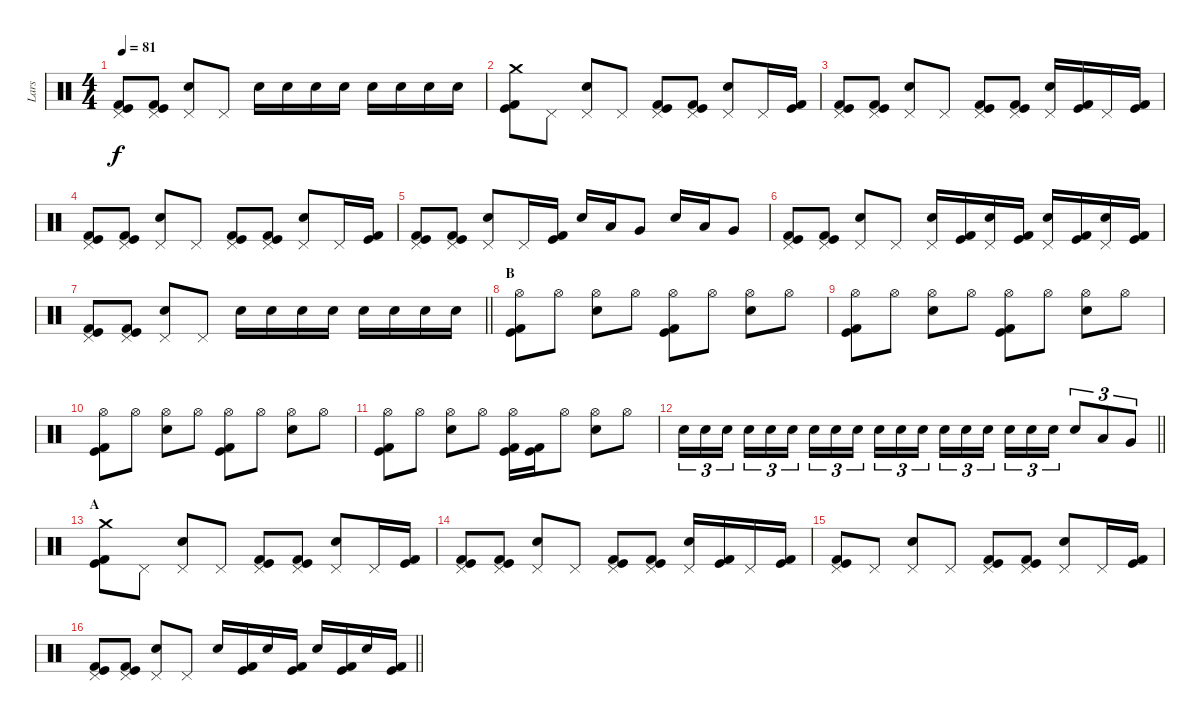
\track ("Lars" "Lars") {instrument percussion}
\staff {score}
\articulation defaults
\ts (4 4)
\tempo 81
\clef neutral
\ks c
("Pedal Hi-Hat (hit)" "Kick (hit)" "Kick (hit) 2").8{dy f} ("Pedal Hi-Hat (hit)" "Kick (hit)" "Kick (hit) 2").8 ("Pedal Hi-Hat (hit)" "Electric Snare (hit)").8 "Pedal Hi-Hat (hit)".8 "Electric Snare (hit)".16 "Electric Snare (hit)".16 "Electric Snare (hit)".16 "Electric Snare (hit)".16 "Electric Snare (hit)".16 "Electric Snare (hit)".16 "Electric Snare (hit)".16 "Electric Snare (hit)".16 |
("Crash medium (hit)" "Kick (hit)" "Kick (hit) 2").8 "Pedal Hi-Hat (hit)".8 ("Pedal Hi-Hat (hit)" "Electric Snare (hit)").8 "Pedal Hi-Hat (hit)".8 ("Pedal Hi-Hat (hit)" "Kick (hit)" "Kick (hit) 2").8 ("Pedal Hi-Hat (hit)" "Kick (hit)" "Kick (hit) 2").8 ("Pedal Hi-Hat (hit)" "Electric Snare (hit)").8 "Pedal Hi-Hat (hit)".16 ("Kick (hit)" "Kick (hit) 2").16 |
("Pedal Hi-Hat (hit)" "Kick (hit)" "Kick (hit) 2").8 ("Pedal Hi-Hat (hit)" "Kick (hit)" "Kick (hit) 2").8 ("Pedal Hi-Hat (hit)" "Electric Snare (hit)").8 "Pedal Hi-Hat (hit)".8 ("Pedal Hi-Hat (hit)" "Kick (hit)" "Kick (hit) 2").8 ("Pedal Hi-Hat (hit)" "Kick (hit)" "Kick (hit) 2").8 ("Pedal Hi-Hat (hit)" "Electric Snare (hit)").16 ("Kick (hit)" "Kick (hit) 2").16 "Pedal Hi-Hat (hit)".16 ("Kick (hit)" "Kick (hit) 2").16 |
("Pedal Hi-Hat (hit)" "Kick (hit)" "Kick (hit) 2").8 ("Pedal Hi-Hat (hit)" "Kick (hit)" "Kick (hit) 2").8 ("Pedal Hi-Hat (hit)" "Electric Snare (hit)").8 "Pedal Hi-Hat (hit)".8 ("Pedal Hi-Hat (hit)" "Kick (hit)" "Kick (hit) 2").8 ("Pedal Hi-Hat (hit)" "Kick (hit)" "Kick (hit) 2").8 ("Pedal Hi-Hat (hit)" "Electric Snare (hit)").8 "Pedal Hi-Hat (hit)".16 ("Kick (hit)" "Kick (hit) 2").16 |
("Pedal Hi-Hat (hit)" "Kick (hit)" "Kick (hit) 2").8 ("Pedal Hi-Hat (hit)" "Kick (hit)" "Kick (hit) 2").8 ("Pedal Hi-Hat (hit)" "Electric Snare (hit)").8 "Pedal Hi-Hat (hit)".16 ("Kick (hit)" "Kick (hit) 2").16 "Electric Snare (hit)".16 "Low Tom (hit)".16 "Very Low Tom (hit)".8 "Electric Snare (hit)".16 "Low Tom (hit)".16 "Very Low Tom (hit)".8 |
("Pedal Hi-Hat (hit)" "Kick (hit)" "Kick (hit) 2").8 ("Pedal Hi-Hat (hit)" "Kick (hit)" "Kick (hit) 2").8 ("Pedal Hi-Hat (hit)" "Electric Snare (hit)").8 "Pedal Hi-Hat (hit)".8 ("Pedal Hi-Hat (hit)" "Electric Snare (hit)").16 ("Kick (hit)" "Kick (hit) 2").16 ("Pedal Hi-Hat (hit)" "Electric Snare (hit)").16 ("Kick (hit)" "Kick (hit) 2").16 ("Pedal Hi-Hat (hit)" "Electric Snare (hit)").16 ("Kick (hit)" "Kick (hit) 2").16 ("Pedal Hi-Hat (hit)" "Electric Snare (hit)").16 ("Kick (hit)" "Kick (hit) 2").16 |
\barLineRight lightlight
("Pedal Hi-Hat (hit)" "Kick (hit)" "Kick (hit) 2").8 ("Pedal Hi-Hat (hit)" "Kick (hit)" "Kick (hit) 2").8 ("Pedal Hi-Hat (hit)" "Electric Snare (hit)").8 "Pedal Hi-Hat (hit)".8 "Electric Snare (hit)".16 "Electric Snare (hit)".16 "Electric Snare (hit)".16 "Electric Snare (hit)".16 "Electric Snare (hit)".16 "Electric Snare (hit)".16 "Electric Snare (hit)".16 "Electric Snare (hit)".16 |
\section ("" "B")
("Hi-Hat (open)" "Kick (hit)" "Kick (hit) 2").8 "Hi-Hat (open)".8 ("Hi-Hat (open)" "Electric Snare (hit)").8 "Hi-Hat (open)".8 ("Hi-Hat (open)" "Kick (hit)" "Kick (hit) 2").8 "Hi-Hat (open)".8 ("Hi-Hat (open)" "Electric Snare (hit)").8 "Hi-Hat (open)".8 |
("Hi-Hat (open)" "Kick (hit)" "Kick (hit) 2").8 "Hi-Hat (open)".8 ("Hi-Hat (open)" "Electric Snare (hit)").8 "Hi-Hat (open)".8 ("Hi-Hat (open)" "Kick (hit)" "Kick (hit) 2").8 "Hi-Hat (open)".8 ("Hi-Hat (open)" "Electric Snare (hit)").8 "Hi-Hat (open)".8 |
("Hi-Hat (open)" "Kick (hit)" "Kick (hit) 2").8 "Hi-Hat (open)".8 ("Hi-Hat (open)" "Electric Snare (hit)").8 "Hi-Hat (open)".8 ("Hi-Hat (open)" "Kick (hit)" "Kick (hit) 2").8 "Hi-Hat (open)".8 ("Hi-Hat (open)" "Electric Snare (hit)").8 "Hi-Hat (open)".8 |
("Hi-Hat (open)" "Kick (hit)" "Kick (hit) 2").8 "Hi-Hat (open)".8 ("Hi-Hat (open)" "Electric Snare (hit)").8 "Hi-Hat (open)".8 ("Hi-Hat (open)" "Kick (hit)" "Kick (hit) 2").16 ("Kick (hit)" "Kick (hit) 2").16 "Hi-Hat (open)".8 ("Hi-Hat (open)" "Electric Snare (hit)").8 "Hi-Hat (open)".8 |
\barLineRight lightlight "Electric Snare (hit)".16{tu (3 2)} "Electric Snare (hit)".16{tu (3 2)} "Electric Snare (hit)".16{tu (3 2) beam splitsecondary} "Electric Snare (hit)".16{tu (3 2)} "Electric Snare (hit)".16{tu (3 2)} "Electric Snare (hit)".16{tu (3 2)} "Electric Snare (hit)".16{tu (3 2)} "Electric Snare (hit)".16{tu (3 2)} "Electric Snare (hit)".16{tu (3 2) beam splitsecondary} "Electric Snare (hit)".16{tu (3 2)} "Electric Snare (hit)".16{tu (3 2)} "Electric Snare (hit)".16{tu (3 2)} "Electric Snare (hit)".16{tu (3 2)} "Electric Snare (hit)".16{tu (3 2)} "Electric Snare (hit)".16{tu (3 2) beam splitsecondary} "Electric Snare (hit)".16{tu (3 2)} "Electric Snare (hit)".16{tu (3 2)} "Electric Snare (hit)".16{tu (3 2)} "Electric Snare (hit)".8{tu (3 2)} "Low Tom (hit)".8{tu (3 2)} "Very Low Tom (hit)".8{tu (3 2)}
|
\section ("" "A")
("Crash medium (hit)" "Kick (hit)" "Kick (hit) 2").8 "Pedal Hi-Hat (hit)".8 ("Pedal Hi-Hat (hit)" "Electric Snare (hit)").8 "Pedal Hi-Hat (hit)".8 ("Pedal Hi-Hat (hit)" "Kick (hit)" "Kick (hit) 2").8 ("Pedal Hi-Hat (hit)" "Kick (hit)" "Kick (hit) 2").8 ("Pedal Hi-Hat (hit)" "Electric Snare (hit)").8 "Pedal Hi-Hat (hit)".16 ("Kick (hit)" "Kick (hit) 2").16 |
("Pedal Hi-Hat (hit)" "Kick (hit)" "Kick (hit) 2").8 ("Pedal Hi-Hat (hit)" "Kick (hit)" "Kick (hit) 2").8 ("Pedal Hi-Hat (hit)" "Electric Snare (hit)").8 "Pedal Hi-Hat (hit)".8 ("Pedal Hi-Hat (hit)" "Kick (hit)" "Kick (hit) 2").8 ("Pedal Hi-Hat (hit)" "Kick (hit)" "Kick (hit) 2").8 ("Pedal Hi-Hat (hit)" "Electric Snare (hit)").16 ("Kick (hit)" "Kick (hit) 2").16 "Pedal Hi-Hat (hit)".16 ("Kick (hit)" "Kick (hit) 2").16 |
("Pedal Hi-Hat (hit)" "Kick (hit)" "Kick (hit) 2").8 "Pedal Hi-Hat (hit)".8 ("Pedal Hi-Hat (hit)" "Electric Snare (hit)").8 "Pedal Hi-Hat (hit)".8 ("Pedal Hi-Hat (hit)" "Kick (hit)" "Kick (hit) 2").8 ("Pedal Hi-Hat (hit)" "Kick (hit)" "Kick (hit) 2").8 ("Pedal Hi-Hat (hit)" "Electric Snare (hit)").8 "Pedal Hi-Hat (hit)".16 ("Kick (hit)" "Kick (hit) 2").16 |
\barLineRight lightlight
("Pedal Hi-Hat (hit)" "Kick (hit)" "Kick (hit) 2").8 ("Pedal Hi-Hat (hit)" "Kick (hit)" "Kick (hit) 2").8 ("Pedal Hi-Hat (hit)" "Electric Snare (hit)").8 "Pedal Hi-Hat (hit)".8 "Electric Snare (hit)".16 ("Kick (hit)" "Kick (hit) 2").16 "Electric Snare (hit)".16 ("Kick (hit)" "Kick (hit) 2").16 "Electric Snare (hit)".16 ("Kick (hit)" "Kick (hit) 2").16 "Electric Snare (hit)".16 ("Kick (hit)" "Kick (hit) 2").16
